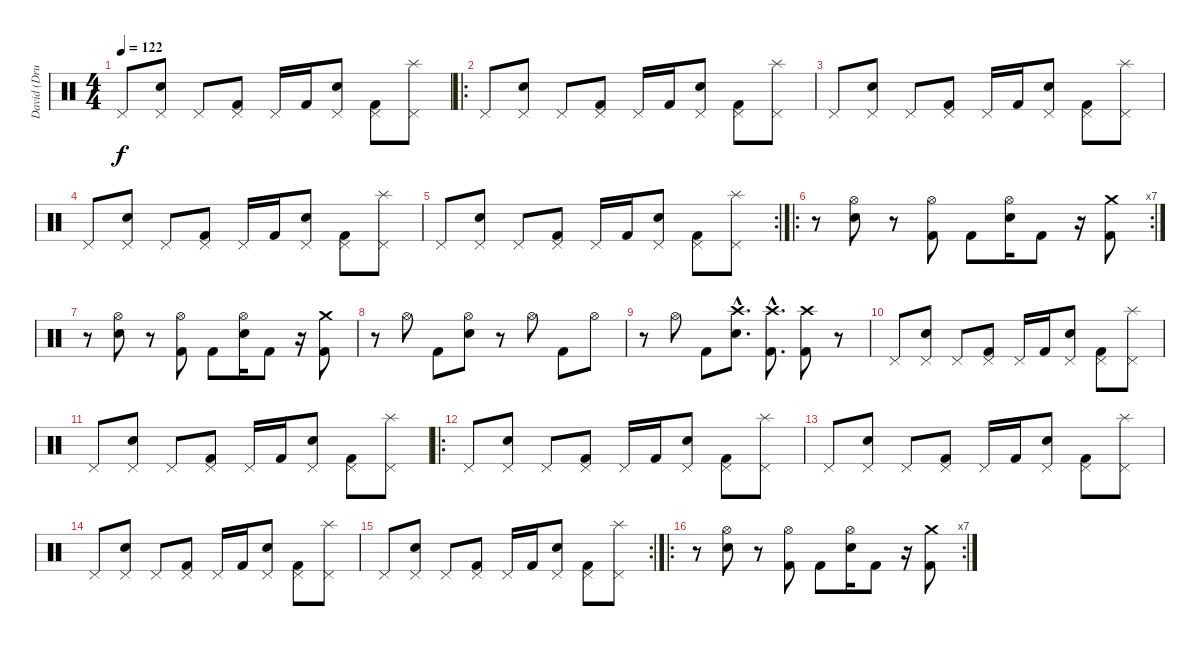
\track ("David (Drums)" "David (Dru") {instrument percussion}
\staff {score}
\articulation defaults
\ts (4 4)
\tempo 122
\clef neutral
\ks c "Pedal Hi-Hat (hit)".8{dy f}
("Pedal Hi-Hat (hit)" "Electric Snare (hit)").8 "Pedal Hi-Hat (hit)".8 ("Pedal Hi-Hat (hit)" "Kick (hit) 2").8 "Pedal Hi-Hat (hit)".16 "Kick (hit) 2".16 ("Pedal Hi-Hat (hit)" "Electric Snare (hit)").8 ("Pedal Hi-Hat (hit)" "Kick (hit) 2").8 ("Pedal Hi-Hat (hit)" "Splash (hit)").8 |
\ro "Pedal Hi-Hat (hit)".8
("Pedal Hi-Hat (hit)" "Electric Snare (hit)").8 "Pedal Hi-Hat (hit)".8 ("Pedal Hi-Hat (hit)" "Kick (hit) 2").8 "Pedal Hi-Hat (hit)".16 "Kick (hit) 2".16 ("Pedal Hi-Hat (hit)" "Electric Snare (hit)").8 ("Pedal Hi-Hat (hit)" "Kick (hit) 2").8 ("Pedal Hi-Hat (hit)" "Splash (hit)").8 |
"Pedal Hi-Hat (hit)".8 ("Pedal Hi-Hat (hit)" "Electric Snare (hit)").8 "Pedal Hi-Hat (hit)".8 ("Pedal Hi-Hat (hit)" "Kick (hit) 2").8 "Pedal Hi-Hat (hit)".16 "Kick (hit) 2".16 ("Pedal Hi-Hat (hit)" "Electric Snare (hit)").8 ("Pedal Hi-Hat (hit)" "Kick (hit) 2").8 ("Pedal Hi-Hat (hit)" "Splash (hit)").8 |
"Pedal Hi-Hat (hit)".8 ("Pedal Hi-Hat (hit)" "Electric Snare (hit)").8 "Pedal Hi-Hat (hit)".8 ("Pedal Hi-Hat (hit)" "Kick (hit) 2").8 "Pedal Hi-Hat (hit)".16 "Kick (hit) 2".16 ("Pedal Hi-Hat (hit)" "Electric Snare (hit)").8 ("Pedal Hi-Hat (hit)" "Kick (hit) 2").8 ("Pedal Hi-Hat (hit)" "Splash (hit)").8 |
\rc 2 "Pedal Hi-Hat (hit)".8
("Pedal Hi-Hat (hit)" "Electric Snare (hit)").8 "Pedal Hi-Hat (hit)".8 ("Pedal Hi-Hat (hit)" "Kick (hit) 2").8 "Pedal Hi-Hat (hit)".16 "Kick (hit) 2".16 ("Pedal Hi-Hat (hit)" "Electric Snare (hit)").8 ("Pedal Hi-Hat (hit)" "Kick (hit) 2").8 ("Pedal Hi-Hat (hit)" "Splash (hit)").8 |
\ro
\rc 7
r.8 ("Hi-Hat (open)" "Electric Snare (hit)").8 r.8 ("Hi-Hat (open)" "Kick (hit) 2").8 "Kick (hit) 2".8 ("Hi-Hat (open)" "Electric Snare (hit)").16 "Kick (hit) 2".8 r.16 ("Crash medium (hit)" "Kick (hit) 2").8 |
r.8 ("Hi-Hat (open)" "Electric Snare (hit)").8 r.8 ("Hi-Hat (open)" "Kick (hit) 2").8 "Kick (hit) 2".8 ("Hi-Hat (open)" "Electric Snare (hit)").16 "Kick (hit) 2".8 r.16 ("Crash medium (hit)" "Kick (hit) 2").8 |
r.8 "Hi-Hat (open)".8 "Kick (hit) 2".8 ("Hi-Hat (open)" "Electric Snare (hit)").8 r.8 "Hi-Hat (open)".8 "Kick (hit) 2".8 "Hi-Hat (open)".8 |
r.8 "Hi-Hat (open)".8 "Kick (hit) 2".8 ("Crash high (hit)"{hac} "Electric Snare (hit)"{hac}).8{d} ("Crash high (hit)"{hac} "Kick (hit) 2"{hac}).8{d} ("Crash high (hit)" "Kick (hit) 2").8 r.8 |
"Pedal Hi-Hat (hit)".8 ("Pedal Hi-Hat (hit)" "Electric Snare (hit)").8 "Pedal Hi-Hat (hit)".8 ("Pedal Hi-Hat (hit)" "Kick (hit) 2").8 "Pedal Hi-Hat (hit)".16 "Kick (hit) 2".16 ("Pedal Hi-Hat (hit)" "Electric Snare (hit)").8 ("Pedal Hi-Hat (hit)" "Kick (hit) 2").8 ("Pedal Hi-Hat (hit)" "Splash (hit)").8 |
"Pedal Hi-Hat (hit)".8 ("Pedal Hi-Hat (hit)" "Electric Snare (hit)").8 "Pedal Hi-Hat (hit)".8 ("Pedal Hi-Hat (hit)" "Kick (hit) 2").8 "Pedal Hi-Hat (hit)".16 "Kick (hit) 2".16 ("Pedal Hi-Hat (hit)" "Electric Snare (hit)").8 ("Pedal Hi-Hat (hit)" "Kick (hit) 2").8 ("Pedal Hi-Hat (hit)" "Splash (hit)").8 |
\ro "Pedal Hi-Hat (hit)".8
("Pedal Hi-Hat (hit)" "Electric Snare (hit)").8 "Pedal Hi-Hat (hit)".8 ("Pedal Hi-Hat (hit)" "Kick (hit) 2").8 "Pedal Hi-Hat (hit)".16 "Kick (hit) 2".16 ("Pedal Hi-Hat (hit)" "Electric Snare (hit)").8 ("Pedal Hi-Hat (hit)" "Kick (hit) 2").8 ("Pedal Hi-Hat (hit)" "Splash (hit)").8 |
"Pedal Hi-Hat (hit)".8 ("Pedal Hi-Hat (hit)" "Electric Snare (hit)").8 "Pedal Hi-Hat (hit)".8 ("Pedal Hi-Hat (hit)" "Kick (hit) 2").8 "Pedal Hi-Hat (hit)".16 "Kick (hit) 2".16 ("Pedal Hi-Hat (hit)" "Electric Snare (hit)").8 ("Pedal Hi-Hat (hit)" "Kick (hit) 2").8 ("Pedal Hi-Hat (hit)" "Splash (hit)").8 |
"Pedal Hi-Hat (hit)".8 ("Pedal Hi-Hat (hit)" "Electric Snare (hit)").8 "Pedal Hi-Hat (hit)".8 ("Pedal Hi-Hat (hit)" "Kick (hit) 2").8 "Pedal Hi-Hat (hit)".16 "Kick (hit) 2".16 ("Pedal Hi-Hat (hit)" "Electric Snare (hit)").8 ("Pedal Hi-Hat (hit)" "Kick (hit) 2").8 ("Pedal Hi-Hat (hit)" "Splash (hit)").8 |
\rc 2 "Pedal Hi-Hat (hit)".8
("Pedal Hi-Hat (hit)" "Electric Snare (hit)").8 "Pedal Hi-Hat (hit)".8 ("Pedal Hi-Hat (hit)" "Kick (hit) 2").8 "Pedal Hi-Hat (hit)".16 "Kick (hit) 2".16 ("Pedal Hi-Hat (hit)" "Electric Snare (hit)").8 ("Pedal Hi-Hat (hit)" "Kick (hit) 2").8 ("Pedal Hi-Hat (hit)" "Splash (hit)").8 |
\ro
\rc 7
r.8 ("Hi-Hat (open)" "Electric Snare (hit)").8 r.8 ("Hi-Hat (open)" "Kick (hit) 2").8 "Kick (hit) 2".8 ("Hi-Hat (open)" "Electric Snare (hit)").16 "Kick (hit) 2".8 r.16 ("Crash medium (hit)" "Kick (hit) 2").8
